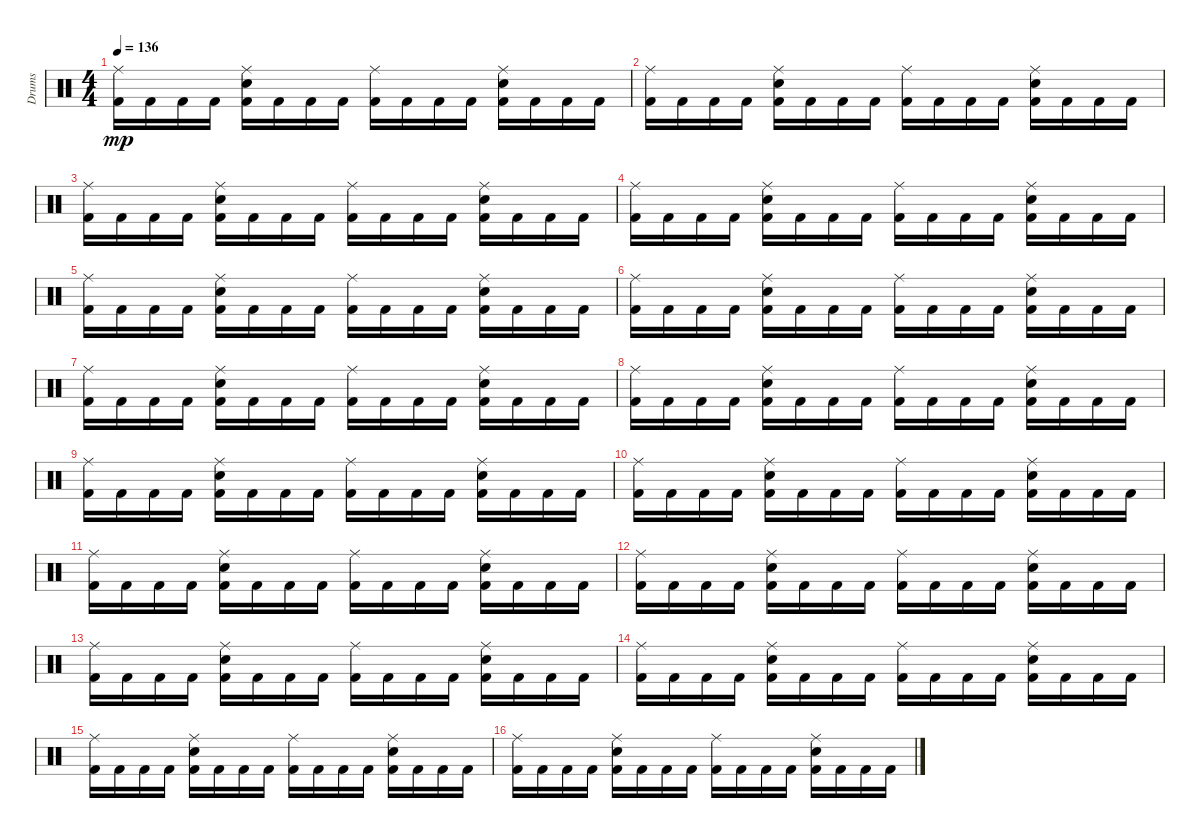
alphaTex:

\track ("Drums" "Drums") {instrument percussion}
\staff {score}
\articulation defaults
\ts (4 4)
\tempo 136
\clef neutral
\ks c
("Ride (middle)" "Kick (hit) 2").16{dy mp} "Kick (hit) 2".16 "Kick (hit) 2".16 "Kick (hit) 2".16 ("Ride (middle)" "Snare (hit) 2" "Kick (hit) 2").16 "Kick (hit) 2".16 "Kick (hit) 2".16 "Kick (hit) 2".16 ("Ride (middle)" "Kick (hit) 2").16 "Kick (hit) 2".16 "Kick (hit) 2".16 "Kick (hit) 2".16 ("Ride (middle)" "Snare (hit) 2" "Kick (hit) 2").16 "Kick (hit) 2".16 "Kick (hit) 2".16 "Kick (hit) 2".16 |
("Ride (middle)" "Kick (hit) 2").16 "Kick (hit) 2".16 "Kick (hit) 2".16 "Kick (hit) 2".16 ("Ride (middle)" "Snare (hit) 2" "Kick (hit) 2").16 "Kick (hit) 2".16 "Kick (hit) 2".16 "Kick (hit) 2".16 ("Ride (middle)" "Kick (hit) 2").16 "Kick (hit) 2".16 "Kick (hit) 2".16 "Kick (hit) 2".16 ("Ride (middle)" "Snare (hit) 2" "Kick (hit) 2").16 "Kick (hit) 2".16 "Kick (hit) 2".16 "Kick (hit) 2".16 |
("Ride (middle)" "Kick (hit) 2").16 "Kick (hit) 2".16 "Kick (hit) 2".16 "Kick (hit) 2".16 ("Ride (middle)" "Snare (hit) 2" "Kick (hit) 2").16 "Kick (hit) 2".16 "Kick (hit) 2".16 "Kick (hit) 2".16 ("Ride (middle)" "Kick (hit) 2").16 "Kick (hit) 2".16 "Kick (hit) 2".16 "Kick (hit) 2".16 ("Ride (middle)" "Snare (hit) 2" "Kick (hit) 2").16 "Kick (hit) 2".16 "Kick (hit) 2".16 "Kick (hit) 2".16 |
("Ride (middle)" "Kick (hit) 2").16 "Kick (hit) 2".16 "Kick (hit) 2".16 "Kick (hit) 2".16 ("Ride (middle)" "Snare (hit) 2" "Kick (hit) 2").16 "Kick (hit) 2".16 "Kick (hit) 2".16 "Kick (hit) 2".16 ("Ride (middle)" "Kick (hit) 2").16 "Kick (hit) 2".16 "Kick (hit) 2".16 "Kick (hit) 2".16 ("Ride (middle)" "Snare (hit) 2" "Kick (hit) 2").16 "Kick (hit) 2".16 "Kick (hit) 2".16 "Kick (hit) 2".16 |
("Ride (middle)" "Kick (hit) 2").16 "Kick (hit) 2".16 "Kick (hit) 2".16 "Kick (hit) 2".16 ("Ride (middle)" "Snare (hit) 2" "Kick (hit) 2").16 "Kick (hit) 2".16 "Kick (hit) 2".16 "Kick (hit) 2".16 ("Ride (middle)" "Kick (hit) 2").16 "Kick (hit) 2".16 "Kick (hit) 2".16 "Kick (hit) 2".16 ("Ride (middle)" "Snare (hit) 2" "Kick (hit) 2").16 "Kick (hit) 2".16 "Kick (hit) 2".16 "Kick (hit) 2".16 |
("Ride (middle)" "Kick (hit) 2").16 "Kick (hit) 2".16 "Kick (hit) 2".16 "Kick (hit) 2".16 ("Ride (middle)" "Snare (hit) 2" "Kick (hit) 2").16 "Kick (hit) 2".16 "Kick (hit) 2".16 "Kick (hit) 2".16 ("Ride (middle)" "Kick (hit) 2").16 "Kick (hit) 2".16 "Kick (hit) 2".16 "Kick (hit) 2".16 ("Ride (middle)" "Snare (hit) 2" "Kick (hit) 2").16 "Kick (hit) 2".16 "Kick (hit) 2".16 "Kick (hit) 2".16 |
("Ride (middle)" "Kick (hit) 2").16 "Kick (hit) 2".16 "Kick (hit) 2".16 "Kick (hit) 2".16 ("Ride (middle)" "Snare (hit) 2" "Kick (hit) 2").16 "Kick (hit) 2".16 "Kick (hit) 2".16 "Kick (hit) 2".16 ("Ride (middle)" "Kick (hit) 2").16 "Kick (hit) 2".16 "Kick (hit) 2".16 "Kick (hit) 2".16 ("Ride (middle)" "Snare (hit) 2" "Kick (hit) 2").16 "Kick (hit) 2".16 "Kick (hit) 2".16 "Kick (hit) 2".16 |
("Ride (middle)" "Kick (hit) 2").16 "Kick (hit) 2".16 "Kick (hit) 2".16 "Kick (hit) 2".16 ("Ride (middle)" "Snare (hit) 2" "Kick (hit) 2").16 "Kick (hit) 2".16 "Kick (hit) 2".16 "Kick (hit) 2".16 ("Ride (middle)" "Kick (hit) 2").16 "Kick (hit) 2".16 "Kick (hit) 2".16 "Kick (hit) 2".16 ("Ride (middle)" "Snare (hit) 2" "Kick (hit) 2").16 "Kick (hit) 2".16 "Kick (hit) 2".16 "Kick (hit) 2".16 |
("Ride (middle)" "Kick (hit) 2").16 "Kick (hit) 2".16 "Kick (hit) 2".16 "Kick (hit) 2".16 ("Ride (middle)" "Snare (hit) 2" "Kick (hit) 2").16 "Kick (hit) 2".16 "Kick (hit) 2".16 "Kick (hit) 2".16 ("Ride (middle)" "Kick (hit) 2").16 "Kick (hit) 2".16 "Kick (hit) 2".16 "Kick (hit) 2".16 ("Ride (middle)" "Snare (hit) 2" "Kick (hit) 2").16 "Kick (hit) 2".16 "Kick (hit) 2".16 "Kick (hit) 2".16 |
("Ride (middle)" "Kick (hit) 2").16 "Kick (hit) 2".16 "Kick (hit) 2".16 "Kick (hit) 2".16 ("Ride (middle)" "Snare (hit) 2" "Kick (hit) 2").16 "Kick (hit) 2".16 "Kick (hit) 2".16 "Kick (hit) 2".16 ("Ride (middle)" "Kick (hit) 2").16 "Kick (hit) 2".16 "Kick (hit) 2".16 "Kick (hit) 2".16 ("Ride (middle)" "Snare (hit) 2" "Kick (hit) 2").16 "Kick (hit) 2".16 "Kick (hit) 2".16 "Kick (hit) 2".16 |
("Ride (middle)" "Kick (hit) 2").16 "Kick (hit) 2".16 "Kick (hit) 2".16 "Kick (hit) 2".16 ("Ride (middle)" "Snare (hit) 2" "Kick (hit) 2").16 "Kick (hit) 2".16 "Kick (hit) 2".16 "Kick (hit) 2".16 ("Ride (middle)" "Kick (hit) 2").16 "Kick (hit) 2".16 "Kick (hit) 2".16 "Kick (hit) 2".16 ("Ride (middle)" "Snare (hit) 2" "Kick (hit) 2").16 "Kick (hit) 2".16 "Kick (hit) 2".16 "Kick (hit) 2".16 |
("Ride (middle)" "Kick (hit) 2").16 "Kick (hit) 2".16 "Kick (hit) 2".16 "Kick (hit) 2".16 ("Ride (middle)" "Snare (hit) 2" "Kick (hit) 2").16 "Kick (hit) 2".16 "Kick (hit) 2".16 "Kick (hit) 2".16 ("Ride (middle)" "Kick (hit) 2").16 "Kick (hit) 2".16 "Kick (hit) 2".16 "Kick (hit) 2".16 ("Ride (middle)" "Snare (hit) 2" "Kick (hit) 2").16 "Kick (hit) 2".16 "Kick (hit) 2".16 "Kick (hit) 2".16 |
("Ride (middle)" "Kick (hit) 2").16 "Kick (hit) 2".16 "Kick (hit) 2".16 "Kick (hit) 2".16 ("Ride (middle)" "Snare (hit) 2" "Kick (hit) 2").16 "Kick (hit) 2".16 "Kick (hit) 2".16 "Kick (hit) 2".16 ("Ride (middle)" "Kick (hit) 2").16 "Kick (hit) 2".16 "Kick (hit) 2".16 "Kick (hit) 2".16 ("Ride (middle)" "Snare (hit) 2" "Kick (hit) 2").16 "Kick (hit) 2".16 "Kick (hit) 2".16 "Kick (hit) 2".16 |
("Ride (middle)" "Kick (hit) 2").16 "Kick (hit) 2".16 "Kick (hit) 2".16 "Kick (hit) 2".16 ("Ride (middle)" "Snare (hit) 2" "Kick (hit) 2").16 "Kick (hit) 2".16 "Kick (hit) 2".16 "Kick (hit) 2".16 ("Ride (middle)" "Kick (hit) 2").16 "Kick (hit) 2".16 "Kick (hit) 2".16 "Kick (hit) 2".16 ("Ride (middle)" "Snare (hit) 2" "Kick (hit) 2").16 "Kick (hit) 2".16 "Kick (hit) 2".16 "Kick (hit) 2".16 |
("Ride (middle)" "Kick (hit) 2").16 "Kick (hit) 2".16 "Kick (hit) 2".16 "Kick (hit) 2".16 ("Ride (middle)" "Snare (hit) 2" "Kick (hit) 2").16 "Kick (hit) 2".16 "Kick (hit) 2".16 "Kick (hit) 2".16 ("Ride (middle)" "Kick (hit) 2").16 "Kick (hit) 2".16 "Kick (hit) 2".16 "Kick (hit) 2".16 ("Ride (middle)" "Snare (hit) 2" "Kick (hit) 2").16 "Kick (hit) 2".16 "Kick (hit) 2".16 "Kick (hit) 2".16 |
("Ride (middle)" "Kick (hit) 2").16 "Kick (hit) 2".16 "Kick (hit) 2".16 "Kick (hit) 2".16 ("Ride (middle)" "Snare (hit) 2" "Kick (hit) 2").16 "Kick (hit) 2".16 "Kick (hit) 2".16 "Kick (hit) 2".16 ("Ride (middle)" "Kick (hit) 2").16 "Kick (hit) 2".16 "Kick (hit) 2".16 "Kick (hit) 2".16 ("Ride (middle)" "Snare (hit) 2" "Kick (hit) 2").16 "Kick (hit) 2".16 "Kick (hit) 2".16 "Kick (hit) 2".16
